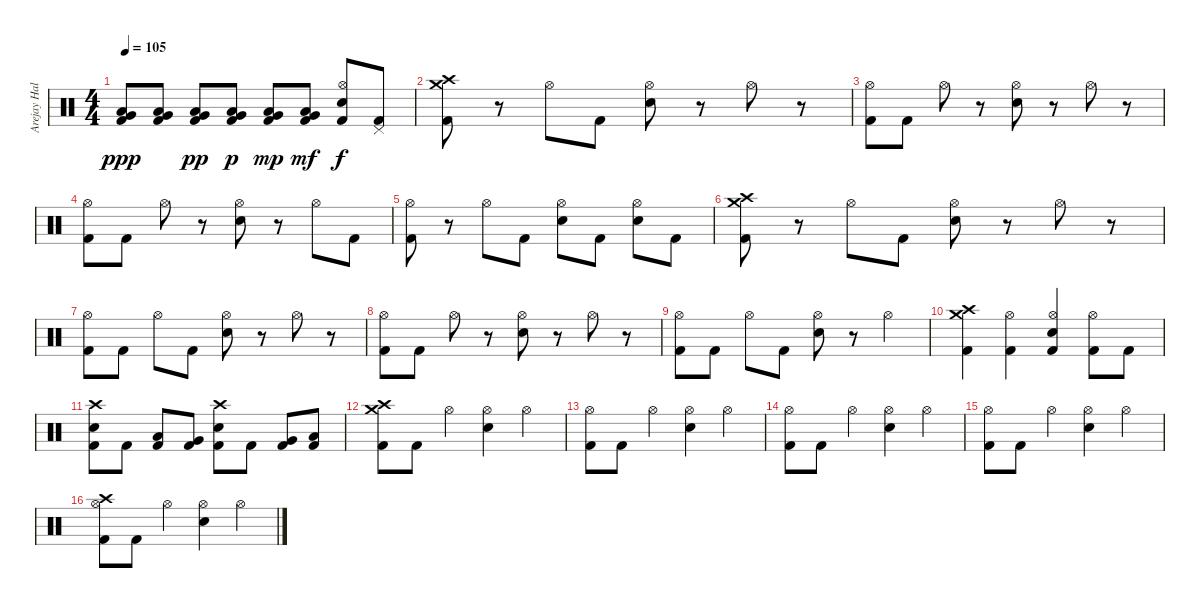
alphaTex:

\track ("Arejay Hale" "Arejay Hal") {instrument percussion}
\staff {score}
\articulation defaults
\ts (4 4)
\tempo 105
\clef neutral
\ks c
("Low Floor Tom (hit)" "Very Low Tom (hit)" "Kick (hit) 2").8{dy ppp} ("Low Floor Tom (hit)" "Very Low Tom (hit)" "Kick (hit) 2").8 ("Low Floor Tom (hit)" "Very Low Tom (hit)" "Kick (hit) 2").8{dy pp} ("Low Floor Tom (hit)" "Very Low Tom (hit)" "Kick (hit) 2").8{dy p} ("Low Floor Tom (hit)" "Very Low Tom (hit)" "Kick (hit) 2").8{dy mp} ("Low Floor Tom (hit)" "Very Low Tom (hit)" "Kick (hit) 2").8{dy mf} ("Hi-Hat (open)" "Electric Snare (hit)" "Kick (hit) 2").8{dy f} ("Pedal Hi-Hat (hit)" "Kick (hit) 2").8 |
("Crash high (hit)" "Crash medium (hit)" "Kick (hit) 2").8 r.8 "Hi-Hat (open)".8 "Kick (hit) 2".8 ("Hi-Hat (open)" "Electric Snare (hit)").8 r.8 "Hi-Hat (open)".8 r.8 |
("Hi-Hat (open)" "Kick (hit) 2").8 "Kick (hit) 2".8 "Hi-Hat (open)".8 r.8 ("Hi-Hat (open)" "Electric Snare (hit)").8 r.8 "Hi-Hat (open)".8 r.8 |
("Hi-Hat (open)" "Kick (hit) 2").8 "Kick (hit) 2".8 "Hi-Hat (open)".8 r.8 ("Hi-Hat (open)" "Electric Snare (hit)").8 r.8 "Hi-Hat (open)".8 "Kick (hit) 2".8 |
("Hi-Hat (open)" "Kick (hit) 2").8 r.8 "Hi-Hat (open)".8 "Kick (hit) 2".8 ("Hi-Hat (open)" "Electric Snare (hit)").8 "Kick (hit) 2".8 ("Hi-Hat (open)" "Electric Snare (hit)").8 "Kick (hit) 2".8 |
("Crash high (hit)" "Crash medium (hit)" "Kick (hit) 2").8 r.8 "Hi-Hat (open)".8 "Kick (hit) 2".8 ("Hi-Hat (open)" "Electric Snare (hit)").8 r.8 "Hi-Hat (open)".8 r.8 |
("Hi-Hat (open)" "Kick (hit) 2").8 "Kick (hit) 2".8 "Hi-Hat (open)".8 "Kick (hit) 2".8 ("Hi-Hat (open)" "Electric Snare (hit)").8 r.8 "Hi-Hat (open)".8 r.8 |
("Hi-Hat (open)" "Kick (hit) 2").8 "Kick (hit) 2".8 "Hi-Hat (open)".8 r.8 ("Hi-Hat (open)" "Electric Snare (hit)").8 r.8 "Hi-Hat (open)".8 r.8 |
("Hi-Hat (open)" "Kick (hit) 2").8 "Kick (hit) 2".8 "Hi-Hat (open)".8 "Kick (hit) 2".8 ("Hi-Hat (open)" "Electric Snare (hit)").8 r.8 "Hi-Hat (open)".4 |
("Crash high (hit)" "Crash medium (hit)" "Kick (hit) 2").4 ("Hi-Hat (open)" "Kick (hit) 2").4 ("Hi-Hat (open)" "Electric Snare (hit)" "Kick (hit) 2").4 ("Hi-Hat (open)" "Kick (hit) 2").8 "Kick (hit) 2".8 |
("Crash high (hit)" "Electric Snare (hit)" "Kick (hit) 2").8 "Kick (hit) 2".8 ("Low Tom (hit)" "Kick (hit) 2").8 ("Very Low Tom (hit)" "Kick (hit) 2").8 ("Crash high (hit)" "Electric Snare (hit)" "Kick (hit) 2").8 "Kick (hit) 2".8 ("Very Low Tom (hit)" "Kick (hit) 2").8 ("Low Floor Tom (hit)" "Kick (hit) 2").8 |
("Crash high (hit)" "Crash medium (hit)" "Kick (hit) 2").8 "Kick (hit) 2".8 "Hi-Hat (open)".4 ("Hi-Hat (open)" "Electric Snare (hit)").4 "Hi-Hat (open)".4 |
("Hi-Hat (open)" "Kick (hit) 2").8 "Kick (hit) 2".8 "Hi-Hat (open)".4 ("Hi-Hat (open)" "Electric Snare (hit)").4 "Hi-Hat (open)".4 |
("Hi-Hat (open)" "Kick (hit) 2").8 "Kick (hit) 2".8 "Hi-Hat (open)".4 ("Hi-Hat (open)" "Electric Snare (hit)").4 "Hi-Hat (open)".4 |
("Hi-Hat (open)" "Kick (hit) 2").8 "Kick (hit) 2".8 "Hi-Hat (open)".4 ("Hi-Hat (open)" "Electric Snare (hit)").4 "Hi-Hat (open)".4 |
("Crash high (hit)" "Hi-Hat (open)" "Kick (hit) 2").8 "Kick (hit) 2".8 "Hi-Hat (open)".4 ("Hi-Hat (open)" "Electric Snare (hit)").4 "Hi-Hat (open)".4
